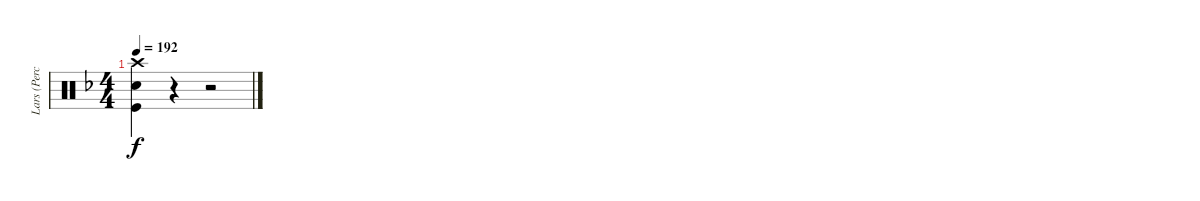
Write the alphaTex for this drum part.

\track ("Lars (Percussion)" "Lars (Perc") {instrument percussion}
\staff {score}
\articulation defaults
\ts (4 4)
\tempo 192
\clef neutral
\ks f
("Crash high (hit)" "Snare (hit) 2" "Kick (hit)").4{dy f} r.4 r.2
